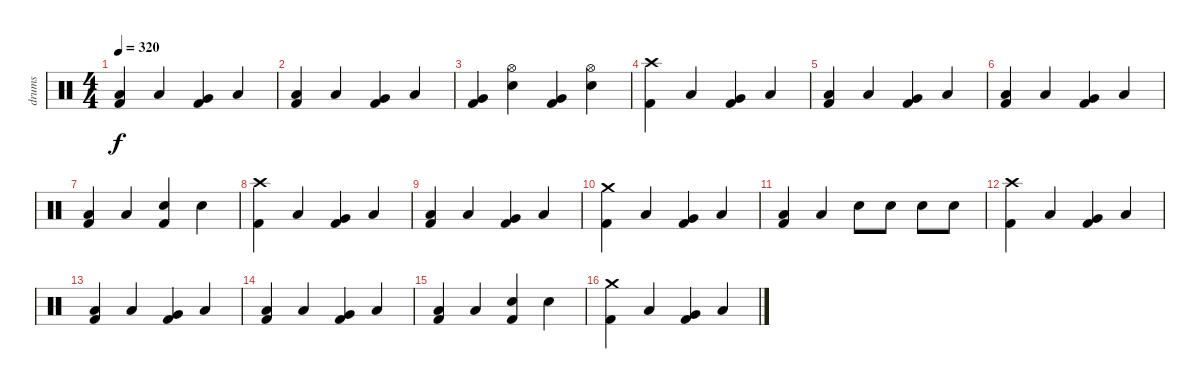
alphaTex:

\track ("drums" "drums") {instrument percussion}
\staff {score}
\articulation defaults
\ts (4 4)
\tempo 320
\clef neutral
\ks c
("Low Floor Tom (hit)" "Kick (hit) 2").4{dy f} "Low Floor Tom (hit)".4 ("Very Low Tom (hit)" "Kick (hit) 2").4 "Low Floor Tom (hit)".4 |
("Low Floor Tom (hit)" "Kick (hit) 2").4 "Low Floor Tom (hit)".4 ("Very Low Tom (hit)" "Kick (hit) 2").4 "Low Floor Tom (hit)".4 |
("Very Low Tom (hit)" "Kick (hit) 2").4 ("Hi-Hat (open)" "Snare (hit) 2").4 ("Very Low Tom (hit)" "Kick (hit) 2").4 ("Hi-Hat (open)" "Snare (hit) 2").4 |
("Crash high (hit)" "Kick (hit) 2").4 "Low Floor Tom (hit)".4 ("Very Low Tom (hit)" "Kick (hit) 2").4 "Low Floor Tom (hit)".4 |
("Low Floor Tom (hit)" "Kick (hit) 2").4 "Low Floor Tom (hit)".4 ("Very Low Tom (hit)" "Kick (hit) 2").4 "Low Floor Tom (hit)".4 |
("Low Floor Tom (hit)" "Kick (hit) 2").4 "Low Floor Tom (hit)".4 ("Very Low Tom (hit)" "Kick (hit) 2").4 "Low Floor Tom (hit)".4 |
("Low Floor Tom (hit)" "Kick (hit) 2").4 "Low Floor Tom (hit)".4 ("Snare (hit) 2" "Kick (hit) 2").4 "Snare (hit) 2".4 |
("Crash high (hit)" "Kick (hit) 2").4 "Low Floor Tom (hit)".4 ("Very Low Tom (hit)" "Kick (hit) 2").4 "Low Floor Tom (hit)".4 |
("Low Floor Tom (hit)" "Kick (hit) 2").4 "Low Floor Tom (hit)".4 ("Very Low Tom (hit)" "Kick (hit) 2").4 "Low Floor Tom (hit)".4 |
("Crash medium (hit)" "Kick (hit) 2").4 "Low Floor Tom (hit)".4 ("Very Low Tom (hit)" "Kick (hit) 2").4 "Low Floor Tom (hit)".4 |
("Low Floor Tom (hit)" "Kick (hit) 2").4 "Low Floor Tom (hit)".4 "Snare (hit) 2".8 "Snare (hit) 2".8 "Snare (hit) 2".8 "Snare (hit) 2".8 |
("Crash high (hit)" "Kick (hit) 2").4 "Low Floor Tom (hit)".4 ("Very Low Tom (hit)" "Kick (hit) 2").4 "Low Floor Tom (hit)".4 |
("Low Floor Tom (hit)" "Kick (hit) 2").4 "Low Floor Tom (hit)".4 ("Very Low Tom (hit)" "Kick (hit) 2").4 "Low Floor Tom (hit)".4 |
("Low Floor Tom (hit)" "Kick (hit) 2").4 "Low Floor Tom (hit)".4 ("Very Low Tom (hit)" "Kick (hit) 2").4 "Low Floor Tom (hit)".4 |
("Low Floor Tom (hit)" "Kick (hit) 2").4 "Low Floor Tom (hit)".4 ("Snare (hit) 2" "Kick (hit) 2").4 "Snare (hit) 2".4 |
("Crash medium (hit)" "Kick (hit) 2").4 "Low Floor Tom (hit)".4 ("Very Low Tom (hit)" "Kick (hit) 2").4 "Low Floor Tom (hit)".4
